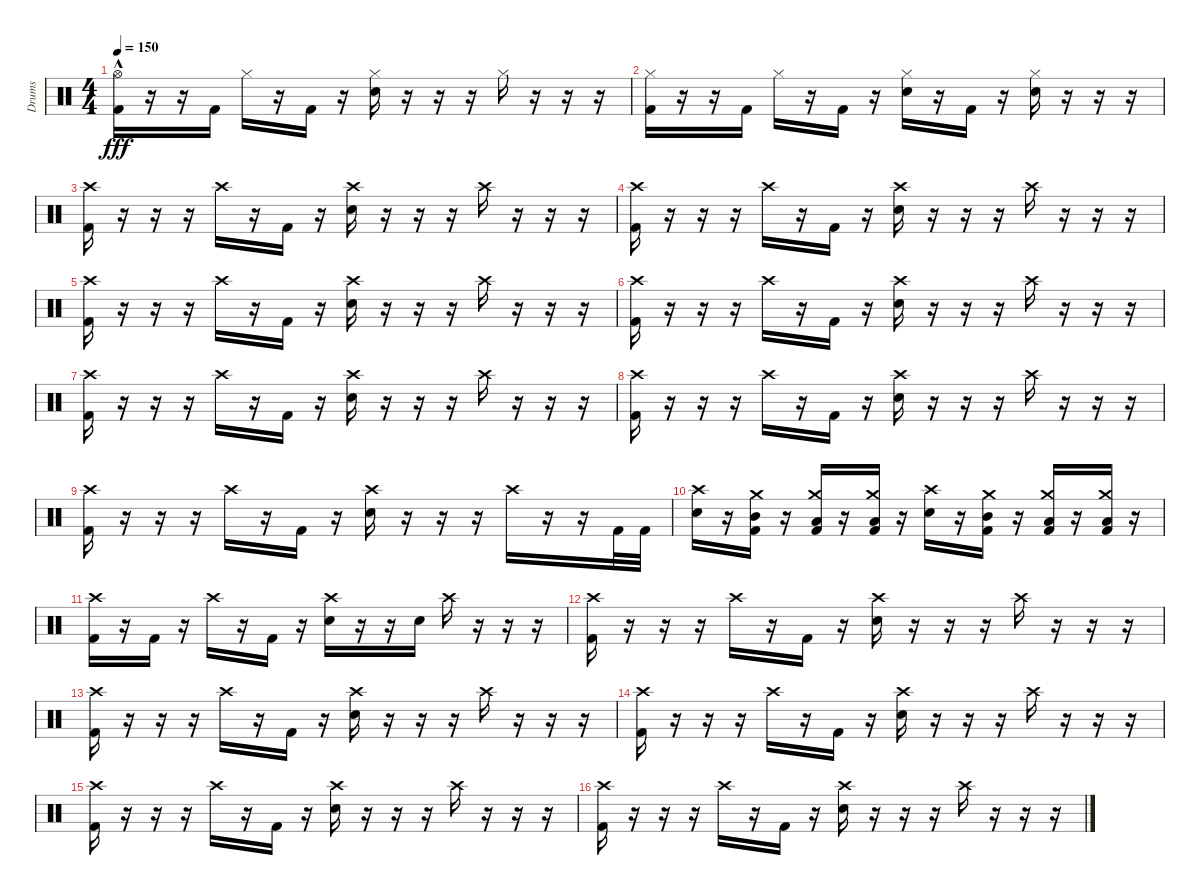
\track ("Drums" "Drums") {instrument percussion}
\staff {score}
\articulation defaults
\ts (4 4)
\tempo 150
\clef neutral
\ks c
("Hi-Hat (open)"{hac} "Kick (hit) 2").16{dy fff} r.16 r.16 "Kick (hit) 2".16 "Hi-Hat (closed)".16 r.16 "Kick (hit) 2".16 r.16 ("Hi-Hat (closed)" "Electric Snare (hit)").16 r.16 r.16 r.16 "Hi-Hat (closed)".16 r.16 r.16 r.16 |
("Hi-Hat (closed)" "Kick (hit) 2").16 r.16 r.16 "Kick (hit) 2".16 "Hi-Hat (closed)".16 r.16 "Kick (hit) 2".16 r.16 ("Hi-Hat (closed)" "Electric Snare (hit)").16 r.16 "Kick (hit) 2".16 r.16 ("Hi-Hat (closed)" "Electric Snare (hit)").16 r.16 r.16 r.16 |
("Crash high (hit)" "Kick (hit) 2").16 r.16 r.16 r.16 "Crash high (hit)".16 r.16 "Kick (hit) 2".16 r.16 ("Crash high (hit)" "Electric Snare (hit)").16 r.16 r.16 r.16 "Crash high (hit)".16 r.16 r.16 r.16 |
("Crash high (hit)" "Kick (hit) 2").16 r.16 r.16 r.16 "Crash high (hit)".16 r.16 "Kick (hit) 2".16 r.16 ("Crash high (hit)" "Electric Snare (hit)").16 r.16 r.16 r.16 "Crash high (hit)".16 r.16 r.16 r.16 |
("Crash high (hit)" "Kick (hit) 2").16 r.16 r.16 r.16 "Crash high (hit)".16 r.16 "Kick (hit) 2".16 r.16 ("Crash high (hit)" "Electric Snare (hit)").16 r.16 r.16 r.16 "Crash high (hit)".16 r.16 r.16 r.16 |
("Crash high (hit)" "Kick (hit) 2").16 r.16 r.16 r.16 "Crash high (hit)".16 r.16 "Kick (hit) 2".16 r.16 ("Crash high (hit)" "Electric Snare (hit)").16 r.16 r.16 r.16 "Crash high (hit)".16 r.16 r.16 r.16 |
("Crash high (hit)" "Kick (hit) 2").16 r.16 r.16 r.16 "Crash high (hit)".16 r.16 "Kick (hit) 2".16 r.16 ("Crash high (hit)" "Electric Snare (hit)").16 r.16 r.16 r.16 "Crash high (hit)".16 r.16 r.16 r.16 |
("Crash high (hit)" "Kick (hit) 2").16 r.16 r.16 r.16 "Crash high (hit)".16 r.16 "Kick (hit) 2".16 r.16 ("Crash high (hit)" "Electric Snare (hit)").16 r.16 r.16 r.16 "Crash high (hit)".16 r.16 r.16 r.16 |
("Crash high (hit)" "Kick (hit) 2").16 r.16 r.16 r.16 "Crash high (hit)".16 r.16 "Kick (hit) 2".16 r.16 ("Crash high (hit)" "Electric Snare (hit)").16 r.16 r.16 r.16 "Crash high (hit)".16 r.16 r.16 "Kick (hit) 2".32 "Kick (hit) 2".32 |
("Crash high (hit)" "Electric Snare (hit)").16 r.16 ("Crash medium (hit)" "Mid Tom (hit)" "Kick (hit) 2").16 r.16 ("Crash medium (hit)" "Low Tom (hit)" "Kick (hit) 2").16 r.16 ("Crash medium (hit)" "Low Tom (hit)" "Kick (hit) 2").16 r.16 ("Crash high (hit)" "Electric Snare (hit)").16 r.16 ("Crash medium (hit)" "Mid Tom (hit)" "Kick (hit) 2").16 r.16 ("Crash medium (hit)" "Low Tom (hit)" "Kick (hit) 2").16 r.16 ("Crash medium (hit)" "Low Tom (hit)" "Kick (hit) 2").16 r.16 |
("Crash high (hit)" "Kick (hit) 2").16 r.16 "Kick (hit) 2".16 r.16 "Crash high (hit)".16 r.16 "Kick (hit) 2".16 r.16 ("Crash high (hit)" "Electric Snare (hit)").16 r.16 r.16 "Electric Snare (hit)".16 "Crash high (hit)".16 r.16 r.16 r.16 |
("Crash high (hit)" "Kick (hit) 2").16 r.16 r.16 r.16 "Crash high (hit)".16 r.16 "Kick (hit) 2".16 r.16 ("Crash high (hit)" "Electric Snare (hit)").16 r.16 r.16 r.16 "Crash high (hit)".16 r.16 r.16 r.16 |
("Crash high (hit)" "Kick (hit) 2").16 r.16 r.16 r.16 "Crash high (hit)".16 r.16 "Kick (hit) 2".16 r.16 ("Crash high (hit)" "Electric Snare (hit)").16 r.16 r.16 r.16 "Crash high (hit)".16 r.16 r.16 r.16 |
("Crash high (hit)" "Kick (hit) 2").16 r.16 r.16 r.16 "Crash high (hit)".16 r.16 "Kick (hit) 2".16 r.16 ("Crash high (hit)" "Electric Snare (hit)").16 r.16 r.16 r.16 "Crash high (hit)".16 r.16 r.16 r.16 |
("Crash high (hit)" "Kick (hit) 2").16 r.16 r.16 r.16 "Crash high (hit)".16 r.16 "Kick (hit) 2".16 r.16 ("Crash high (hit)" "Electric Snare (hit)").16 r.16 r.16 r.16 "Crash high (hit)".16 r.16 r.16 r.16 |
("Crash high (hit)" "Kick (hit) 2").16 r.16 r.16 r.16 "Crash high (hit)".16 r.16 "Kick (hit) 2".16 r.16 ("Crash high (hit)" "Electric Snare (hit)").16 r.16 r.16 r.16 "Crash high (hit)".16 r.16 r.16 r.16
